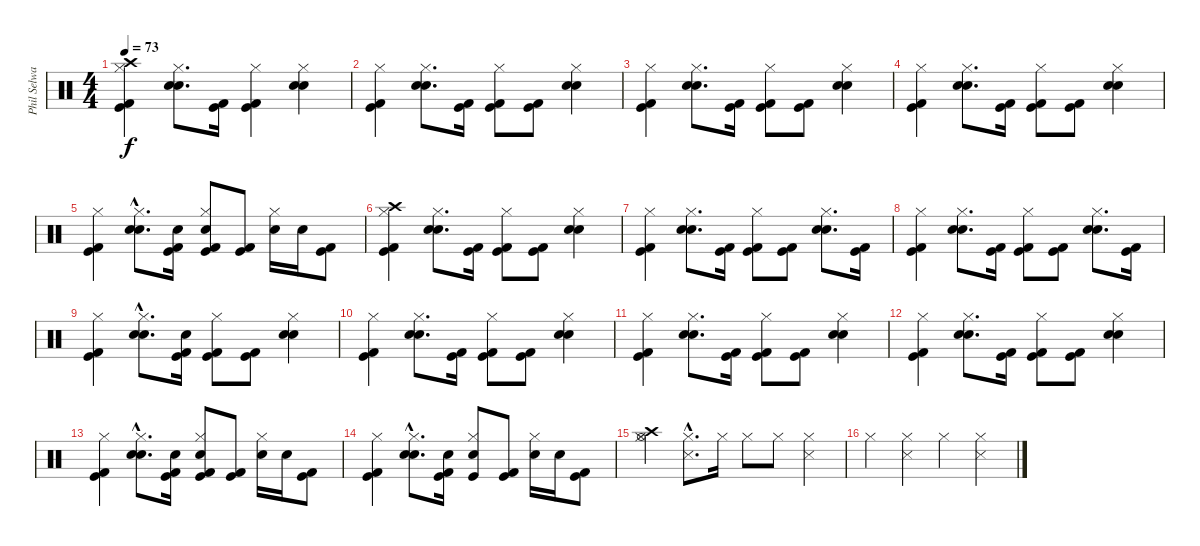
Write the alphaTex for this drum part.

\track ("Phil Selway - Drums" "Phil Selwa") {instrument percussion}
\staff {score}
\articulation defaults
\ts (4 4)
\tempo 73
\clef neutral
\ks c
("Kick (hit)" "Kick (hit) 2" "Hi-Hat (closed)" "Crash high (hit)").4{dy f} ("Electric Snare (hit)" "Snare (hit) 2" "Hi-Hat (closed)").8{d} ("Kick (hit)" "Kick (hit) 2").16 ("Kick (hit)" "Kick (hit) 2" "Hi-Hat (closed)").4 ("Snare (hit) 2" "Electric Snare (hit)" "Hi-Hat (closed)").4 |
("Kick (hit) 2" "Hi-Hat (closed)" "Kick (hit)").4 ("Electric Snare (hit)" "Hi-Hat (closed)" "Snare (hit) 2").8{d} ("Kick (hit)" "Kick (hit) 2").16 ("Kick (hit)" "Kick (hit) 2" "Hi-Hat (closed)").8 ("Kick (hit)" "Kick (hit) 2").8 ("Snare (hit) 2" "Electric Snare (hit)" "Hi-Hat (closed)").4 |
("Hi-Hat (closed)" "Kick (hit) 2" "Kick (hit)").4 ("Hi-Hat (closed)" "Snare (hit) 2" "Electric Snare (hit)").8{d} ("Kick (hit)" "Kick (hit) 2").16 ("Kick (hit)" "Kick (hit) 2" "Hi-Hat (closed)").8 ("Kick (hit)" "Kick (hit) 2").8 ("Snare (hit) 2" "Electric Snare (hit)" "Hi-Hat (closed)").4 |
("Hi-Hat (closed)" "Kick (hit) 2" "Kick (hit)").4 ("Hi-Hat (closed)" "Snare (hit) 2" "Electric Snare (hit)").8{d} ("Kick (hit)" "Kick (hit) 2").16 ("Kick (hit)" "Kick (hit) 2" "Hi-Hat (closed)").8 ("Kick (hit)" "Kick (hit) 2").8 ("Snare (hit) 2" "Electric Snare (hit)" "Hi-Hat (closed)").4 |
("Hi-Hat (closed)" "Kick (hit) 2" "Kick (hit)").4 ("Hi-Hat (closed)" "Snare (hit) 2"{hac} "Electric Snare (hit)").8{d} ("Kick (hit)" "Kick (hit) 2" "Snare (hit) 2").16 ("Snare (hit) 2" "Kick (hit)" "Kick (hit) 2" "Hi-Hat (closed)").8 ("Kick (hit) 2" "Kick (hit)").8 ("Hi-Hat (closed)" "Snare (hit) 2").16 "Snare (hit) 2".16 ("Kick (hit) 2" "Kick (hit)").8 |
("Crash high (hit)" "Hi-Hat (closed)" "Kick (hit) 2" "Kick (hit)").4 ("Hi-Hat (closed)" "Snare (hit) 2" "Electric Snare (hit)").8{d} ("Kick (hit)" "Kick (hit) 2").16 ("Kick (hit)" "Kick (hit) 2" "Hi-Hat (closed)").8 ("Kick (hit)" "Kick (hit) 2").8 ("Snare (hit) 2" "Electric Snare (hit)" "Hi-Hat (closed)").4 |
("Hi-Hat (closed)" "Kick (hit) 2" "Kick (hit)").4 ("Hi-Hat (closed)" "Snare (hit) 2" "Electric Snare (hit)").8{d} ("Kick (hit)" "Kick (hit) 2").16 ("Kick (hit)" "Kick (hit) 2" "Hi-Hat (closed)").8 ("Kick (hit)" "Kick (hit) 2").8 ("Snare (hit) 2" "Electric Snare (hit)" "Hi-Hat (closed)").8{d} ("Kick (hit)" "Kick (hit) 2").16 |
("Hi-Hat (closed)" "Kick (hit) 2" "Kick (hit)").4 ("Hi-Hat (closed)" "Snare (hit) 2" "Electric Snare (hit)").8{d} ("Kick (hit)" "Kick (hit) 2").16 ("Kick (hit)" "Kick (hit) 2" "Hi-Hat (closed)").8 ("Kick (hit)" "Kick (hit) 2").8 ("Snare (hit) 2" "Electric Snare (hit)" "Hi-Hat (closed)").8{d} ("Kick (hit)" "Kick (hit) 2").16 |
("Hi-Hat (closed)" "Kick (hit) 2" "Kick (hit)").4 ("Hi-Hat (closed)" "Snare (hit) 2"{hac} "Electric Snare (hit)").8{d} ("Kick (hit)" "Kick (hit) 2" "Snare (hit) 2").16 ("Kick (hit) 2" "Kick (hit)" "Hi-Hat (closed)").8 ("Kick (hit) 2" "Kick (hit)").8 ("Snare (hit) 2" "Electric Snare (hit)" "Hi-Hat (closed)").4 |
("Kick (hit) 2" "Hi-Hat (closed)" "Kick (hit)").4 ("Electric Snare (hit)" "Hi-Hat (closed)" "Snare (hit) 2").8{d} ("Kick (hit)" "Kick (hit) 2").16 ("Kick (hit)" "Kick (hit) 2" "Hi-Hat (closed)").8 ("Kick (hit)" "Kick (hit) 2").8 ("Snare (hit) 2" "Electric Snare (hit)" "Hi-Hat (closed)").4 |
("Hi-Hat (closed)" "Kick (hit) 2" "Kick (hit)").4 ("Hi-Hat (closed)" "Snare (hit) 2" "Electric Snare (hit)").8{d} ("Kick (hit)" "Kick (hit) 2").16 ("Kick (hit)" "Kick (hit) 2" "Hi-Hat (closed)").8 ("Kick (hit)" "Kick (hit) 2").8 ("Snare (hit) 2" "Electric Snare (hit)" "Hi-Hat (closed)").4 |
("Hi-Hat (closed)" "Kick (hit) 2" "Kick (hit)").4 ("Hi-Hat (closed)" "Snare (hit) 2" "Electric Snare (hit)").8{d} ("Kick (hit)" "Kick (hit) 2").16 ("Kick (hit)" "Kick (hit) 2" "Hi-Hat (closed)").8 ("Kick (hit)" "Kick (hit) 2").8 ("Snare (hit) 2" "Electric Snare (hit)" "Hi-Hat (closed)").4 |
("Hi-Hat (closed)" "Kick (hit) 2" "Kick (hit)").4 ("Hi-Hat (closed)" "Snare (hit) 2"{hac} "Electric Snare (hit)").8{d} ("Kick (hit)" "Kick (hit) 2" "Snare (hit) 2").16 ("Snare (hit) 2" "Kick (hit)" "Kick (hit) 2" "Hi-Hat (closed)").8 ("Kick (hit) 2" "Kick (hit)").8 ("Hi-Hat (closed)" "Snare (hit) 2").16 "Snare (hit) 2".16 ("Kick (hit) 2" "Kick (hit)").8 |
("Hi-Hat (closed)" "Kick (hit) 2" "Kick (hit)").4 ("Hi-Hat (closed)" "Snare (hit) 2"{hac} "Electric Snare (hit)").8{d} ("Kick (hit)" "Kick (hit) 2" "Snare (hit) 2").16 ("Kick (hit)" "Hi-Hat (closed)" "Snare (hit) 2").8 ("Kick (hit) 2" "Kick (hit)").8 ("Hi-Hat (closed)" "Snare (hit) 2").16 "Snare (hit) 2".16 ("Kick (hit) 2" "Kick (hit)").8 |
("Hi-Hat (open)" "Crash high (hit)" "Hi-Hat (closed)").4 ("Snare (side stick) 3" "Hi-Hat (closed)"{hac}).8{d} "Hi-Hat (closed)".16 "Hi-Hat (closed)".8 "Hi-Hat (closed)".8 ("Hi-Hat (closed)" "Snare (side stick) 3").4 |
"Hi-Hat (closed)".4 ("Snare (side stick) 3" "Hi-Hat (closed)").4 "Hi-Hat (closed)".4 ("Hi-Hat (closed)" "Snare (side stick) 3").4
